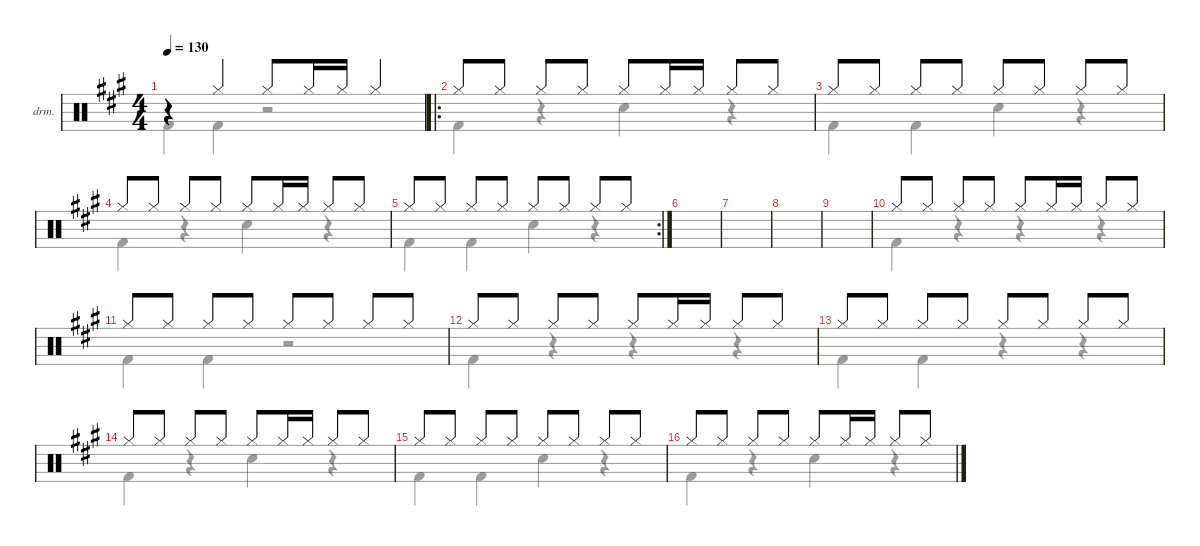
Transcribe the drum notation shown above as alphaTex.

\defaultSystemsLayout 4
\hideDynamics
\bracketExtendMode nobrackets
\firstSystemTrackNameOrientation horizontal
\otherSystemsTrackNameOrientation horizontal
\track ("  " "drm.") {instrument percussion}
\staff {score}
\articulation defaults
\voice
\ts (4 4)
\tempo 130
\clef neutral
\ks f#minor
r.4{dy mf beam Up} "Hi-Hat (closed)"{acc forcenatural}.4{beam Up} "Hi-Hat (closed)"{acc forcenatural}.8{beam Up} "Hi-Hat (closed)"{acc forcenatural}.16{beam Up} "Hi-Hat (closed)"{acc forcenatural}.16{beam Up} "Hi-Hat (closed)"{acc forcenatural}.4{beam Up} |
\ro "Hi-Hat (closed)"{acc forcenatural}.8{beam Up} "Hi-Hat (closed)"{acc forcenatural}.8{beam Up} "Hi-Hat (closed)"{acc forcenatural}.8{beam Up} "Hi-Hat (closed)"{acc forcenatural}.8{beam Up} "Hi-Hat (closed)"{acc forcenatural}.8{beam Up} "Hi-Hat (closed)"{acc forcenatural}.16{beam Up} "Hi-Hat (closed)"{acc forcenatural}.16{beam Up} "Hi-Hat (closed)"{acc forcenatural}.8{beam Up} "Hi-Hat (closed)"{acc forcenatural}.8{beam Up}
|
"Hi-Hat (closed)"{acc forcenatural}.8{beam Up} "Hi-Hat (closed)"{acc forcenatural}.8{beam Up} "Hi-Hat (closed)"{acc forcenatural}.8{beam Up} "Hi-Hat (closed)"{acc forcenatural}.8{beam Up} "Hi-Hat (closed)"{acc forcenatural}.8{beam Up} "Hi-Hat (closed)"{acc forcenatural}.8{beam Up} "Hi-Hat (closed)"{acc forcenatural}.8{beam Up} "Hi-Hat (closed)"{acc forcenatural}.8{beam Up} |
"Hi-Hat (closed)"{acc forcenatural}.8{beam Up} "Hi-Hat (closed)"{acc forcenatural}.8{beam Up} "Hi-Hat (closed)"{acc forcenatural}.8{beam Up} "Hi-Hat (closed)"{acc forcenatural}.8{beam Up} "Hi-Hat (closed)"{acc forcenatural}.8{beam Up} "Hi-Hat (closed)"{acc forcenatural}.16{beam Up} "Hi-Hat (closed)"{acc forcenatural}.16{beam Up} "Hi-Hat (closed)"{acc forcenatural}.8{beam Up} "Hi-Hat (closed)"{acc forcenatural}.8{beam Up} |
\rc 2 "Hi-Hat (closed)"{acc forcenatural}.8{beam Up} "Hi-Hat (closed)"{acc forcenatural}.8{beam Up} "Hi-Hat (closed)"{acc forcenatural}.8{beam Up} "Hi-Hat (closed)"{acc forcenatural}.8{beam Up} "Hi-Hat (closed)"{acc forcenatural}.8{beam Up} "Hi-Hat (closed)"{acc forcenatural}.8{beam Up} "Hi-Hat (closed)"{acc forcenatural}.8{beam Up} "Hi-Hat (closed)"{acc forcenatural}.8{beam Up}
|
|
|
|
|
"Hi-Hat (closed)"{acc forcenatural}.8{beam Up} "Hi-Hat (closed)"{acc forcenatural}.8{beam Up} "Hi-Hat (closed)"{acc forcenatural}.8{beam Up} "Hi-Hat (closed)"{acc forcenatural}.8{beam Up} "Hi-Hat (closed)"{acc forcenatural}.8{beam Up} "Hi-Hat (closed)"{acc forcenatural}.16{beam Up} "Hi-Hat (closed)"{acc forcenatural}.16{beam Up} "Hi-Hat (closed)"{acc forcenatural}.8{beam Up} "Hi-Hat (closed)"{acc forcenatural}.8{beam Up} |
"Hi-Hat (closed)"{acc forcenatural}.8{beam Up} "Hi-Hat (closed)"{acc forcenatural}.8{beam Up} "Hi-Hat (closed)"{acc forcenatural}.8{beam Up} "Hi-Hat (closed)"{acc forcenatural}.8{beam Up} "Hi-Hat (closed)"{acc forcenatural}.8{beam Up} "Hi-Hat (closed)"{acc forcenatural}.8{beam Up} "Hi-Hat (closed)"{acc forcenatural}.8{beam Up} "Hi-Hat (closed)"{acc forcenatural}.8{beam Up} |
"Hi-Hat (closed)"{acc forcenatural}.8{beam Up} "Hi-Hat (closed)"{acc forcenatural}.8{beam Up} "Hi-Hat (closed)"{acc forcenatural}.8{beam Up} "Hi-Hat (closed)"{acc forcenatural}.8{beam Up} "Hi-Hat (closed)"{acc forcenatural}.8{beam Up} "Hi-Hat (closed)"{acc forcenatural}.16{beam Up} "Hi-Hat (closed)"{acc forcenatural}.16{beam Up} "Hi-Hat (closed)"{acc forcenatural}.8{beam Up} "Hi-Hat (closed)"{acc forcenatural}.8{beam Up} |
"Hi-Hat (closed)"{acc forcenatural}.8{beam Up} "Hi-Hat (closed)"{acc forcenatural}.8{beam Up} "Hi-Hat (closed)"{acc forcenatural}.8{beam Up} "Hi-Hat (closed)"{acc forcenatural}.8{beam Up} "Hi-Hat (closed)"{acc forcenatural}.8{beam Up} "Hi-Hat (closed)"{acc forcenatural}.8{beam Up} "Hi-Hat (closed)"{acc forcenatural}.8{beam Up} "Hi-Hat (closed)"{acc forcenatural}.8{beam Up} |
"Hi-Hat (closed)"{acc forcenatural}.8{beam Up} "Hi-Hat (closed)"{acc forcenatural}.8{beam Up} "Hi-Hat (closed)"{acc forcenatural}.8{beam Up} "Hi-Hat (closed)"{acc forcenatural}.8{beam Up} "Hi-Hat (closed)"{acc forcenatural}.8{beam Up} "Hi-Hat (closed)"{acc forcenatural}.16{beam Up} "Hi-Hat (closed)"{acc forcenatural}.16{beam Up} "Hi-Hat (closed)"{acc forcenatural}.8{beam Up} "Hi-Hat (closed)"{acc forcenatural}.8{beam Up} |
"Hi-Hat (closed)"{acc forcenatural}.8{beam Up} "Hi-Hat (closed)"{acc forcenatural}.8{beam Up} "Hi-Hat (closed)"{acc forcenatural}.8{beam Up} "Hi-Hat (closed)"{acc forcenatural}.8{beam Up} "Hi-Hat (closed)"{acc forcenatural}.8{beam Up} "Hi-Hat (closed)"{acc forcenatural}.8{beam Up} "Hi-Hat (closed)"{acc forcenatural}.8{beam Up} "Hi-Hat (closed)"{acc forcenatural}.8{beam Up} |
"Hi-Hat (closed)"{acc forcenatural}.8{beam Up} "Hi-Hat (closed)"{acc forcenatural}.8{beam Up} "Hi-Hat (closed)"{acc forcenatural}.8{beam Up} "Hi-Hat (closed)"{acc forcenatural}.8{beam Up} "Hi-Hat (closed)"{acc forcenatural}.8{beam Up} "Hi-Hat (closed)"{acc forcenatural}.16{beam Up} "Hi-Hat (closed)"{acc forcenatural}.16{beam Up} "Hi-Hat (closed)"{acc forcenatural}.8{beam Up} "Hi-Hat (closed)"{acc forcenatural}.8{beam Up}
\voice
\clef neutral
\ottava regular
\simile none
\ks f#minor "Kick (hit) 2"{acc forcenatural}.4{dy mf beam Down} "Kick (hit) 2"{acc forcenatural}.4{beam Down}
r.2{beam Down} |
"Kick (hit) 2"{acc forcenatural}.4{beam Down} r.4{beam Down} "Snare (hit) 2"{acc forcenatural}.4{beam Down} r.4{beam Down} |
"Kick (hit) 2"{acc forcenatural}.4{beam Down} "Kick (hit) 2"{acc forcenatural}.4{beam Down} "Snare (hit) 2"{acc forcenatural}.4{beam Down} r.4{beam Down} |
"Kick (hit) 2"{acc forcenatural}.4{beam Down} r.4{beam Down} "Snare (hit) 2"{acc forcenatural}.4{beam Down} r.4{beam Down} |
"Kick (hit) 2"{acc forcenatural}.4{beam Down} "Kick (hit) 2"{acc forcenatural}.4{beam Down} "Snare (hit) 2"{acc forcenatural}.4{beam Down} r.4{beam Down} |
|
|
|
|
"Kick (hit) 2"{acc forcenatural}.4{beam Down} r.4{beam Down} r.4{beam Down} r.4{beam Down} |
"Kick (hit) 2"{acc forcenatural}.4{beam Down} "Kick (hit) 2"{acc forcenatural}.4{beam Down} r.2{beam Down} |
"Kick (hit) 2"{acc forcenatural}.4{beam Down} r.4{beam Down} r.4{beam Down} r.4{beam Down} |
"Kick (hit) 2"{acc forcenatural}.4{beam Down} "Kick (hit) 2"{acc forcenatural}.4{beam Down} r.4{beam Down} r.4{beam Down} |
"Kick (hit) 2"{acc forcenatural}.4{beam Down} r.4{beam Down} "Snare (hit) 2"{acc forcenatural}.4{beam Down} r.4{beam Down} |
"Kick (hit) 2"{acc forcenatural}.4{beam Down} "Kick (hit) 2"{acc forcenatural}.4{beam Down} "Snare (hit) 2"{acc forcenatural}.4{beam Down} r.4{beam Down} |
"Kick (hit) 2"{acc forcenatural}.4{beam Down} r.4{beam Down} "Snare (hit) 2"{acc forcenatural}.4{beam Down} r.4{beam Down}
